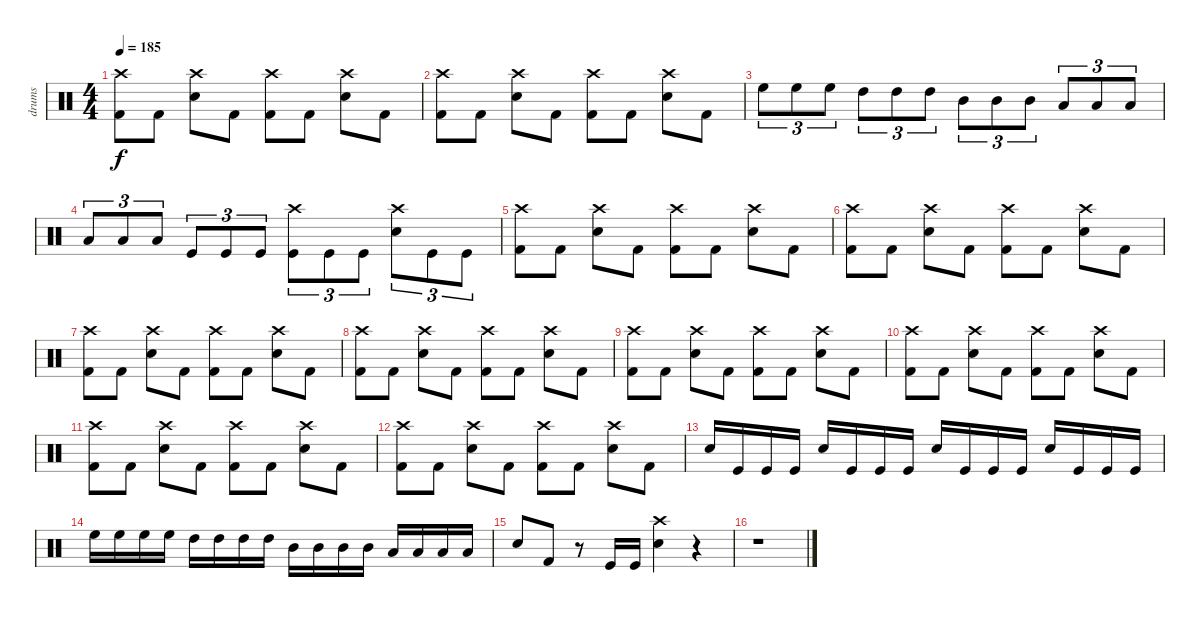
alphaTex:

\track ("drums" "drums") {instrument percussion}
\staff {score}
\articulation defaults
\ts (4 4)
\tempo 185
\clef neutral
\ks c
("Kick (hit) 2" "Crash high (hit)").8{dy f} "Kick (hit) 2".8 ("Electric Snare (hit)" "Crash high (hit)").8 "Kick (hit) 2".8 ("Kick (hit) 2" "Crash high (hit)").8 "Kick (hit) 2".8 ("Electric Snare (hit)" "Crash high (hit)").8 "Kick (hit) 2".8 |
("Kick (hit) 2" "Crash high (hit)").8 "Kick (hit) 2".8 ("Electric Snare (hit)" "Crash high (hit)").8 "Kick (hit) 2".8 ("Kick (hit) 2" "Crash high (hit)").8 "Kick (hit) 2".8 ("Electric Snare (hit)" "Crash high (hit)").8 "Kick (hit) 2".8 |
"High Floor Tom (hit)".8{tu (3 2)} "High Floor Tom (hit)".8{tu (3 2)} "High Floor Tom (hit)".8{tu (3 2)} "High Tom (hit)".8{tu (3 2)} "High Tom (hit)".8{tu (3 2)} "High Tom (hit)".8{tu (3 2)} "Mid Tom (hit)".8{tu (3 2)} "Mid Tom (hit)".8{tu (3 2)} "Mid Tom (hit)".8{tu (3 2)} "Low Tom (hit)".8{tu (3 2)} "Low Tom (hit)".8{tu (3 2)} "Low Tom (hit)".8{tu (3 2)} |
"Low Tom (hit)".8{tu (3 2)} "Low Tom (hit)".8{tu (3 2)} "Low Tom (hit)".8{tu (3 2)} "Kick (hit)".8{tu (3 2)} "Kick (hit)".8{tu (3 2)} "Kick (hit)".8{tu (3 2)} ("Kick (hit)" "Crash high (hit)").8{tu (3 2)} "Kick (hit)".8{tu (3 2)} "Kick (hit)".8{tu (3 2)} ("Electric Snare (hit)" "Crash high (hit)").8{tu (3 2)} "Kick (hit)".8{tu (3 2)} "Kick (hit)".8{tu (3 2)} |
("Kick (hit) 2" "Crash high (hit)").8 "Kick (hit) 2".8 ("Electric Snare (hit)" "Crash high (hit)").8 "Kick (hit) 2".8 ("Kick (hit) 2" "Crash high (hit)").8 "Kick (hit) 2".8 ("Electric Snare (hit)" "Crash high (hit)").8 "Kick (hit) 2".8 |
("Kick (hit) 2" "Crash high (hit)").8 "Kick (hit) 2".8 ("Electric Snare (hit)" "Crash high (hit)").8 "Kick (hit) 2".8 ("Kick (hit) 2" "Crash high (hit)").8 "Kick (hit) 2".8 ("Electric Snare (hit)" "Crash high (hit)").8 "Kick (hit) 2".8 |
("Kick (hit) 2" "Crash high (hit)").8 "Kick (hit) 2".8 ("Electric Snare (hit)" "Crash high (hit)").8 "Kick (hit) 2".8 ("Kick (hit) 2" "Crash high (hit)").8 "Kick (hit) 2".8 ("Electric Snare (hit)" "Crash high (hit)").8 "Kick (hit) 2".8 |
("Kick (hit) 2" "Crash high (hit)").8 "Kick (hit) 2".8 ("Electric Snare (hit)" "Crash high (hit)").8 "Kick (hit) 2".8 ("Kick (hit) 2" "Crash high (hit)").8 "Kick (hit) 2".8 ("Electric Snare (hit)" "Crash high (hit)").8 "Kick (hit) 2".8 |
("Kick (hit) 2" "Crash high (hit)").8 "Kick (hit) 2".8 ("Electric Snare (hit)" "Crash high (hit)").8 "Kick (hit) 2".8 ("Kick (hit) 2" "Crash high (hit)").8 "Kick (hit) 2".8 ("Electric Snare (hit)" "Crash high (hit)").8 "Kick (hit) 2".8 |
("Kick (hit) 2" "Crash high (hit)").8 "Kick (hit) 2".8 ("Electric Snare (hit)" "Crash high (hit)").8 "Kick (hit) 2".8 ("Kick (hit) 2" "Crash high (hit)").8 "Kick (hit) 2".8 ("Electric Snare (hit)" "Crash high (hit)").8 "Kick (hit) 2".8 |
("Kick (hit) 2" "Crash high (hit)").8 "Kick (hit) 2".8 ("Electric Snare (hit)" "Crash high (hit)").8 "Kick (hit) 2".8 ("Kick (hit) 2" "Crash high (hit)").8 "Kick (hit) 2".8 ("Electric Snare (hit)" "Crash high (hit)").8 "Kick (hit) 2".8 |
("Kick (hit) 2" "Crash high (hit)").8 "Kick (hit) 2".8 ("Electric Snare (hit)" "Crash high (hit)").8 "Kick (hit) 2".8 ("Kick (hit) 2" "Crash high (hit)").8 "Kick (hit) 2".8 ("Electric Snare (hit)" "Crash high (hit)").8 "Kick (hit) 2".8 |
"Electric Snare (hit)".16 "Kick (hit)".16 "Kick (hit)".16 "Kick (hit)".16 "Electric Snare (hit)".16 "Kick (hit)".16 "Kick (hit)".16 "Kick (hit)".16 "Electric Snare (hit)".16 "Kick (hit)".16 "Kick (hit)".16 "Kick (hit)".16 "Electric Snare (hit)".16 "Kick (hit)".16 "Kick (hit)".16 "Kick (hit)".16 |
"High Floor Tom (hit)".16 "High Floor Tom (hit)".16 "High Floor Tom (hit)".16 "High Floor Tom (hit)".16 "High Tom (hit)".16 "High Tom (hit)".16 "High Tom (hit)".16 "High Tom (hit)".16 "Mid Tom (hit)".16 "Mid Tom (hit)".16 "Mid Tom (hit)".16 "Mid Tom (hit)".16 "Low Tom (hit)".16 "Low Tom (hit)".16 "Low Tom (hit)".16 "Low Tom (hit)".16 |
"Electric Snare (hit)".8 "Kick (hit) 2".8 r.8 "Kick (hit)".16 "Kick (hit)".16 ("Electric Snare (hit)" "Crash high (hit)").4 r.4 |
r.1
